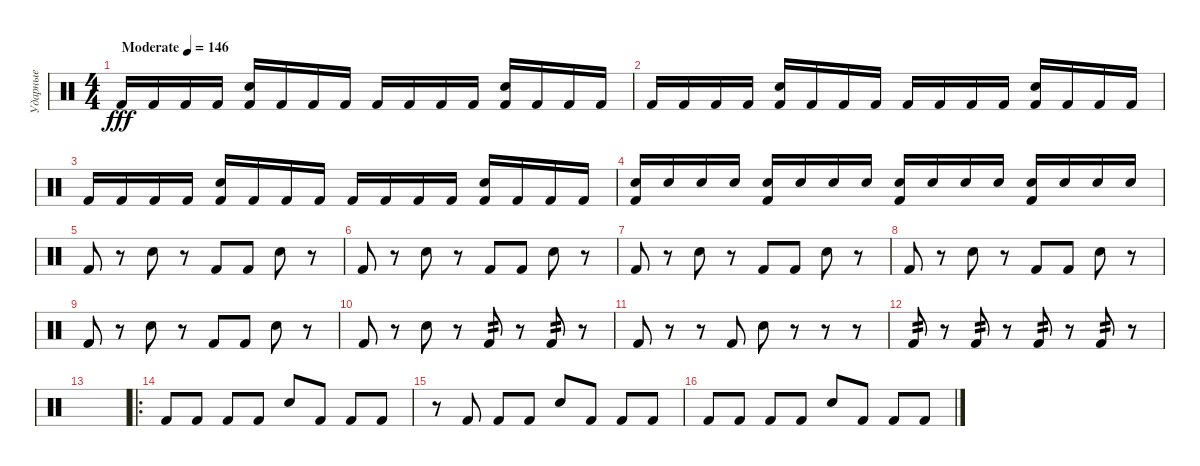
\track ("Ударные" "Ударные") {instrument percussion}
\staff {score}
\articulation defaults
\ts (4 4)
\tempo (146 "Moderate")
\clef neutral
\ks c "Kick (hit) 2".16{dy fff} "Kick (hit) 2".16 "Kick (hit) 2".16 "Kick (hit) 2".16
("Kick (hit) 2" "Snare (hit) 2").16 "Kick (hit) 2".16 "Kick (hit) 2".16 "Kick (hit) 2".16 "Kick (hit) 2".16 "Kick (hit) 2".16 "Kick (hit) 2".16 "Kick (hit) 2".16 ("Kick (hit) 2" "Snare (hit) 2").16 "Kick (hit) 2".16 "Kick (hit) 2".16 "Kick (hit) 2".16 |
"Kick (hit) 2".16 "Kick (hit) 2".16 "Kick (hit) 2".16 "Kick (hit) 2".16 ("Kick (hit) 2" "Snare (hit) 2").16 "Kick (hit) 2".16 "Kick (hit) 2".16 "Kick (hit) 2".16 "Kick (hit) 2".16 "Kick (hit) 2".16 "Kick (hit) 2".16 "Kick (hit) 2".16 ("Kick (hit) 2" "Snare (hit) 2").16 "Kick (hit) 2".16 "Kick (hit) 2".16 "Kick (hit) 2".16 |
"Kick (hit) 2".16 "Kick (hit) 2".16 "Kick (hit) 2".16 "Kick (hit) 2".16 ("Kick (hit) 2" "Snare (hit) 2").16 "Kick (hit) 2".16 "Kick (hit) 2".16 "Kick (hit) 2".16 "Kick (hit) 2".16 "Kick (hit) 2".16 "Kick (hit) 2".16 "Kick (hit) 2".16 ("Kick (hit) 2" "Snare (hit) 2").16 "Kick (hit) 2".16 "Kick (hit) 2".16 "Kick (hit) 2".16 |
("Snare (hit) 2" "Kick (hit) 2").16 "Snare (hit) 2".16 "Snare (hit) 2".16 "Snare (hit) 2".16 ("Snare (hit) 2" "Kick (hit) 2").16 "Snare (hit) 2".16 "Snare (hit) 2".16 "Snare (hit) 2".16 ("Snare (hit) 2" "Kick (hit) 2").16 "Snare (hit) 2".16 "Snare (hit) 2".16 "Snare (hit) 2".16 ("Snare (hit) 2" "Kick (hit) 2").16 "Snare (hit) 2".16 "Snare (hit) 2".16 "Snare (hit) 2".16 |
"Kick (hit) 2".8 r.8 "Snare (hit) 2".8 r.8 "Kick (hit) 2".8 "Kick (hit) 2".8 "Snare (hit) 2".8 r.8 |
"Kick (hit) 2".8 r.8 "Snare (hit) 2".8 r.8 "Kick (hit) 2".8 "Kick (hit) 2".8 "Snare (hit) 2".8 r.8 |
"Kick (hit) 2".8 r.8 "Snare (hit) 2".8 r.8 "Kick (hit) 2".8 "Kick (hit) 2".8 "Snare (hit) 2".8 r.8 |
"Kick (hit) 2".8 r.8 "Snare (hit) 2".8 r.8 "Kick (hit) 2".8 "Kick (hit) 2".8 "Snare (hit) 2".8 r.8 |
"Kick (hit) 2".8 r.8 "Snare (hit) 2".8 r.8 "Kick (hit) 2".8 "Kick (hit) 2".8 "Snare (hit) 2".8 r.8 |
"Kick (hit) 2".8 r.8 "Snare (hit) 2".8 r.8 "Kick (hit) 2".8{tp 2} r.8 "Kick (hit) 2".8{tp 2} r.8 |
"Kick (hit) 2".8 r.8 r.8 "Kick (hit) 2".8 "Snare (hit) 2".8 r.8 r.8 r.8 |
"Kick (hit) 2".8{tp 2} r.8 "Kick (hit) 2".8{tp 2} r.8 "Kick (hit) 2".8{tp 2} r.8 "Kick (hit) 2".8{tp 2} r.8 |
|
\ro "Kick (hit) 2".8 "Kick (hit) 2".8 "Kick (hit) 2".8 "Kick (hit) 2".8 "Snare (hit) 2".8 "Kick (hit) 2".8 "Kick (hit) 2".8 "Kick (hit) 2".8
|
r.8 "Kick (hit) 2".8 "Kick (hit) 2".8 "Kick (hit) 2".8 "Snare (hit) 2".8 "Kick (hit) 2".8 "Kick (hit) 2".8 "Kick (hit) 2".8 |
"Kick (hit) 2".8 "Kick (hit) 2".8 "Kick (hit) 2".8 "Kick (hit) 2".8 "Snare (hit) 2".8 "Kick (hit) 2".8 "Kick (hit) 2".8 "Kick (hit) 2".8
